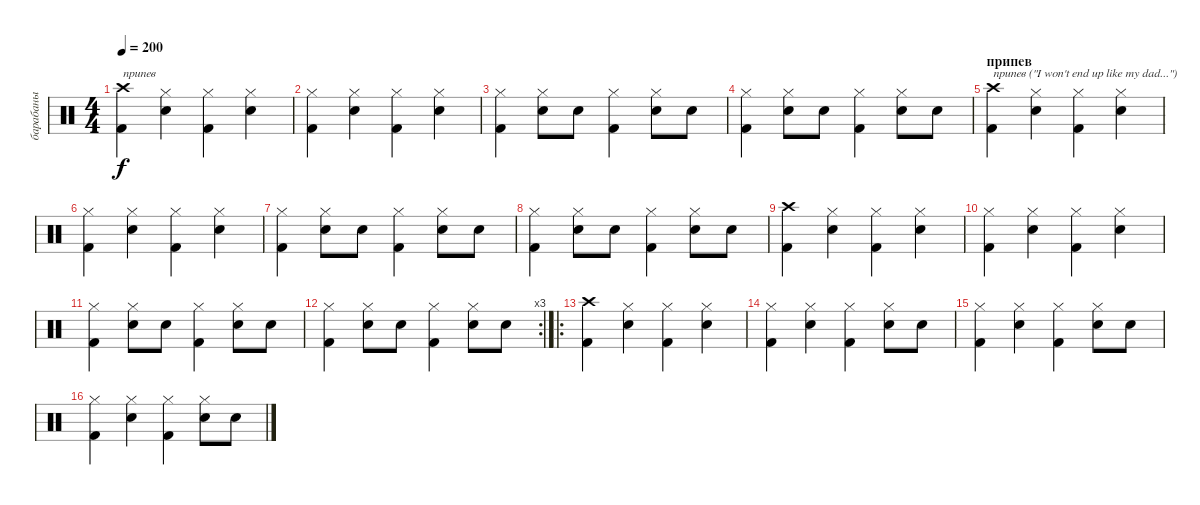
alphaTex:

\track ("барабаны" "барабаны") {instrument percussion}
\staff {score}
\articulation defaults
\ts (4 4)
\tempo 200
\clef neutral
\ks c
("Crash high (hit)" "Kick (hit) 2").4{txt "припев" dy f} ("Hi-Hat (closed)" "Snare (hit) 2").4 ("Hi-Hat (closed)" "Kick (hit) 2").4 ("Hi-Hat (closed)" "Snare (hit) 2").4 |
("Hi-Hat (closed)" "Kick (hit) 2").4 ("Hi-Hat (closed)" "Snare (hit) 2").4 ("Hi-Hat (closed)" "Kick (hit) 2").4 ("Hi-Hat (closed)" "Snare (hit) 2").4 |
("Hi-Hat (closed)" "Kick (hit) 2").4 ("Hi-Hat (closed)" "Snare (hit) 2").8 "Snare (hit) 2".8 ("Hi-Hat (closed)" "Kick (hit) 2").4 ("Hi-Hat (closed)" "Snare (hit) 2").8 "Snare (hit) 2".8 |
("Hi-Hat (closed)" "Kick (hit) 2").4 ("Hi-Hat (closed)" "Snare (hit) 2").8 "Snare (hit) 2".8 ("Hi-Hat (closed)" "Kick (hit) 2").4 ("Hi-Hat (closed)" "Snare (hit) 2").8 "Snare (hit) 2".8 |
\section ("" "припев")
("Crash high (hit)" "Kick (hit) 2").4{txt "припев (\"I won't end up like my dad...\")"} ("Hi-Hat (closed)" "Snare (hit) 2").4 ("Hi-Hat (closed)" "Kick (hit) 2").4 ("Hi-Hat (closed)" "Snare (hit) 2").4 |
("Hi-Hat (closed)" "Kick (hit) 2").4 ("Hi-Hat (closed)" "Snare (hit) 2").4 ("Hi-Hat (closed)" "Kick (hit) 2").4 ("Hi-Hat (closed)" "Snare (hit) 2").4 |
("Hi-Hat (closed)" "Kick (hit) 2").4 ("Hi-Hat (closed)" "Snare (hit) 2").8 "Snare (hit) 2".8 ("Hi-Hat (closed)" "Kick (hit) 2").4 ("Hi-Hat (closed)" "Snare (hit) 2").8 "Snare (hit) 2".8 |
("Hi-Hat (closed)" "Kick (hit) 2").4 ("Hi-Hat (closed)" "Snare (hit) 2").8 "Snare (hit) 2".8 ("Hi-Hat (closed)" "Kick (hit) 2").4 ("Hi-Hat (closed)" "Snare (hit) 2").8 "Snare (hit) 2".8 |
("Crash high (hit)" "Kick (hit) 2").4 ("Hi-Hat (closed)" "Snare (hit) 2").4 ("Hi-Hat (closed)" "Kick (hit) 2").4 ("Hi-Hat (closed)" "Snare (hit) 2").4 |
("Hi-Hat (closed)" "Kick (hit) 2").4 ("Hi-Hat (closed)" "Snare (hit) 2").4 ("Hi-Hat (closed)" "Kick (hit) 2").4 ("Hi-Hat (closed)" "Snare (hit) 2").4 |
("Hi-Hat (closed)" "Kick (hit) 2").4 ("Hi-Hat (closed)" "Snare (hit) 2").8 "Snare (hit) 2".8 ("Hi-Hat (closed)" "Kick (hit) 2").4 ("Hi-Hat (closed)" "Snare (hit) 2").8 "Snare (hit) 2".8 |
\rc 3
("Hi-Hat (closed)" "Kick (hit) 2").4 ("Hi-Hat (closed)" "Snare (hit) 2").8 "Snare (hit) 2".8 ("Hi-Hat (closed)" "Kick (hit) 2").4 ("Hi-Hat (closed)" "Snare (hit) 2").8 "Snare (hit) 2".8 |
\ro
("Crash high (hit)" "Kick (hit) 2").4 ("Hi-Hat (closed)" "Snare (hit) 2").4 ("Hi-Hat (closed)" "Kick (hit) 2").4 ("Hi-Hat (closed)" "Snare (hit) 2").4 |
("Hi-Hat (closed)" "Kick (hit) 2").4 ("Hi-Hat (closed)" "Snare (hit) 2").4 ("Hi-Hat (closed)" "Kick (hit) 2").4 ("Hi-Hat (closed)" "Snare (hit) 2").8 "Snare (hit) 2".8 |
("Hi-Hat (closed)" "Kick (hit) 2").4 ("Hi-Hat (closed)" "Snare (hit) 2").4 ("Hi-Hat (closed)" "Kick (hit) 2").4 ("Hi-Hat (closed)" "Snare (hit) 2").8 "Snare (hit) 2".8 |
("Hi-Hat (closed)" "Kick (hit) 2").4 ("Hi-Hat (closed)" "Snare (hit) 2").4 ("Hi-Hat (closed)" "Kick (hit) 2").4 ("Hi-Hat (closed)" "Snare (hit) 2").8 "Snare (hit) 2".8
